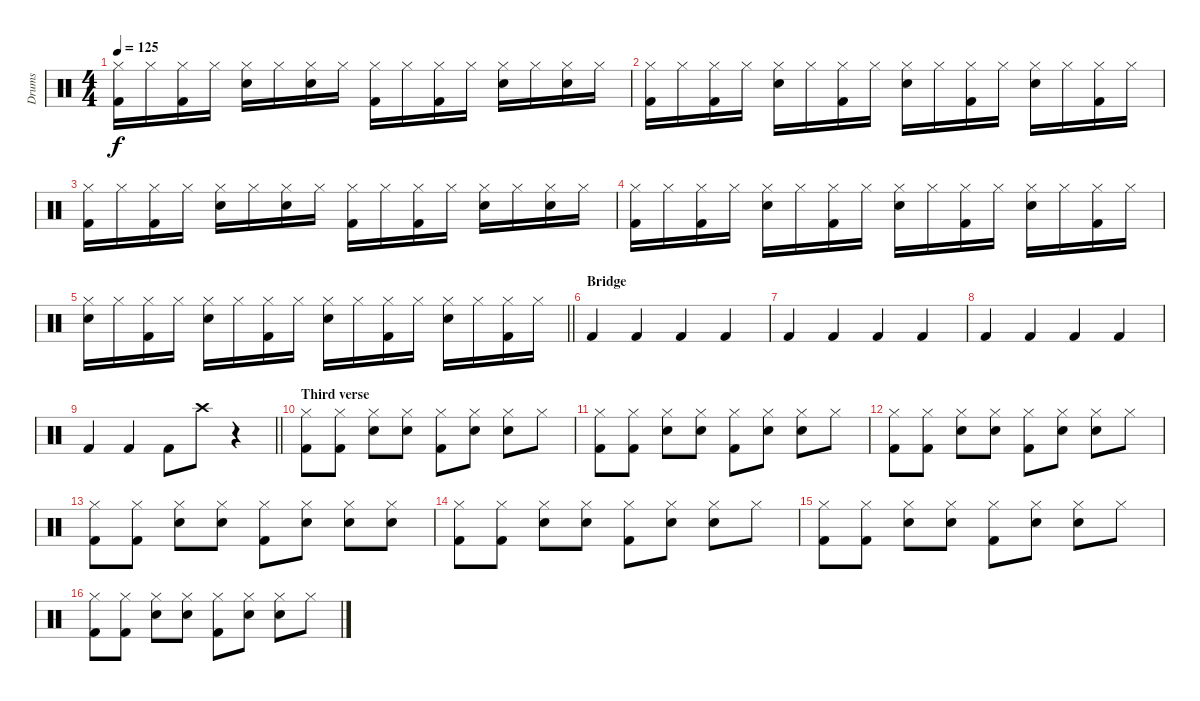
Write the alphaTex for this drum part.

\track ("Drums" "Drums") {instrument percussion}
\staff {score}
\articulation defaults
\ts (4 4)
\tempo 125
\clef neutral
\ks c
("Hi-Hat (closed)" "Kick (hit) 2").16{dy f} "Hi-Hat (closed)".16 ("Hi-Hat (closed)" "Kick (hit) 2").16 "Hi-Hat (closed)".16 ("Hi-Hat (closed)" "Electric Snare (hit)").16 "Hi-Hat (closed)".16 ("Hi-Hat (closed)" "Electric Snare (hit)").16 "Hi-Hat (closed)".16 ("Hi-Hat (closed)" "Kick (hit) 2").16 "Hi-Hat (closed)".16 ("Hi-Hat (closed)" "Kick (hit) 2").16 "Hi-Hat (closed)".16 ("Hi-Hat (closed)" "Electric Snare (hit)").16 "Hi-Hat (closed)".16 ("Hi-Hat (closed)" "Electric Snare (hit)").16 "Hi-Hat (closed)".16 |
("Hi-Hat (closed)" "Kick (hit) 2").16 "Hi-Hat (closed)".16 ("Hi-Hat (closed)" "Kick (hit) 2").16 "Hi-Hat (closed)".16 ("Hi-Hat (closed)" "Electric Snare (hit)").16 "Hi-Hat (closed)".16 ("Hi-Hat (closed)" "Kick (hit) 2").16 "Hi-Hat (closed)".16 ("Hi-Hat (closed)" "Electric Snare (hit)").16 "Hi-Hat (closed)".16 ("Hi-Hat (closed)" "Kick (hit) 2").16 "Hi-Hat (closed)".16 ("Hi-Hat (closed)" "Electric Snare (hit)").16 "Hi-Hat (closed)".16 ("Hi-Hat (closed)" "Kick (hit) 2").16 "Hi-Hat (closed)".16 |
("Hi-Hat (closed)" "Kick (hit) 2").16 "Hi-Hat (closed)".16 ("Hi-Hat (closed)" "Kick (hit) 2").16 "Hi-Hat (closed)".16 ("Hi-Hat (closed)" "Electric Snare (hit)").16 "Hi-Hat (closed)".16 ("Hi-Hat (closed)" "Electric Snare (hit)").16 "Hi-Hat (closed)".16 ("Hi-Hat (closed)" "Kick (hit) 2").16 "Hi-Hat (closed)".16 ("Hi-Hat (closed)" "Kick (hit) 2").16 "Hi-Hat (closed)".16 ("Hi-Hat (closed)" "Electric Snare (hit)").16 "Hi-Hat (closed)".16 ("Hi-Hat (closed)" "Electric Snare (hit)").16 "Hi-Hat (closed)".16 |
("Hi-Hat (closed)" "Kick (hit) 2").16 "Hi-Hat (closed)".16 ("Hi-Hat (closed)" "Kick (hit) 2").16 "Hi-Hat (closed)".16 ("Hi-Hat (closed)" "Electric Snare (hit)").16 "Hi-Hat (closed)".16 ("Hi-Hat (closed)" "Kick (hit) 2").16 "Hi-Hat (closed)".16 ("Hi-Hat (closed)" "Electric Snare (hit)").16 "Hi-Hat (closed)".16 ("Hi-Hat (closed)" "Kick (hit) 2").16 "Hi-Hat (closed)".16 ("Hi-Hat (closed)" "Electric Snare (hit)").16 "Hi-Hat (closed)".16 ("Hi-Hat (closed)" "Kick (hit) 2").16 "Hi-Hat (closed)".16 |
\barLineRight lightlight
("Hi-Hat (closed)" "Electric Snare (hit)").16 "Hi-Hat (closed)".16 ("Hi-Hat (closed)" "Kick (hit) 2").16 "Hi-Hat (closed)".16 ("Hi-Hat (closed)" "Electric Snare (hit)").16 "Hi-Hat (closed)".16 ("Hi-Hat (closed)" "Kick (hit) 2").16 "Hi-Hat (closed)".16 ("Hi-Hat (closed)" "Electric Snare (hit)").16 "Hi-Hat (closed)".16 ("Hi-Hat (closed)" "Kick (hit) 2").16 "Hi-Hat (closed)".16 ("Hi-Hat (closed)" "Electric Snare (hit)").16 "Hi-Hat (closed)".16 ("Hi-Hat (closed)" "Kick (hit) 2").16 "Hi-Hat (closed)".16 |
\section ("" "Bridge")
"Kick (hit) 2".4 "Kick (hit) 2".4 "Kick (hit) 2".4 "Kick (hit) 2".4 |
"Kick (hit) 2".4 "Kick (hit) 2".4 "Kick (hit) 2".4 "Kick (hit) 2".4 |
"Kick (hit) 2".4 "Kick (hit) 2".4 "Kick (hit) 2".4 "Kick (hit) 2".4 |
\barLineRight lightlight "Kick (hit) 2".4 "Kick (hit) 2".4 "Kick (hit) 2".8 "Crash high (hit)".8
r.4 |
\section ("" "Third verse")
("Hi-Hat (closed)" "Kick (hit) 2").8 ("Hi-Hat (closed)" "Kick (hit) 2").8 ("Hi-Hat (closed)" "Electric Snare (hit)").8 ("Hi-Hat (closed)" "Electric Snare (hit)").8 ("Hi-Hat (closed)" "Kick (hit) 2").8 ("Hi-Hat (closed)" "Electric Snare (hit)").8 ("Hi-Hat (closed)" "Electric Snare (hit)").8 "Hi-Hat (closed)".8 |
("Hi-Hat (closed)" "Kick (hit) 2").8 ("Hi-Hat (closed)" "Kick (hit) 2").8 ("Hi-Hat (closed)" "Electric Snare (hit)").8 ("Hi-Hat (closed)" "Electric Snare (hit)").8 ("Hi-Hat (closed)" "Kick (hit) 2").8 ("Hi-Hat (closed)" "Electric Snare (hit)").8 ("Hi-Hat (closed)" "Electric Snare (hit)").8 "Hi-Hat (closed)".8 |
("Hi-Hat (closed)" "Kick (hit) 2").8 ("Hi-Hat (closed)" "Kick (hit) 2").8 ("Hi-Hat (closed)" "Electric Snare (hit)").8 ("Hi-Hat (closed)" "Electric Snare (hit)").8 ("Hi-Hat (closed)" "Kick (hit) 2").8 ("Hi-Hat (closed)" "Electric Snare (hit)").8 ("Hi-Hat (closed)" "Electric Snare (hit)").8 "Hi-Hat (closed)".8 |
("Hi-Hat (closed)" "Kick (hit) 2").8 ("Hi-Hat (closed)" "Kick (hit) 2").8 ("Hi-Hat (closed)" "Electric Snare (hit)").8 ("Hi-Hat (closed)" "Electric Snare (hit)").8 ("Hi-Hat (closed)" "Kick (hit) 2").8 ("Hi-Hat (closed)" "Electric Snare (hit)").8 ("Hi-Hat (closed)" "Electric Snare (hit)").8 ("Hi-Hat (closed)" "Electric Snare (hit)").8 |
("Hi-Hat (closed)" "Kick (hit) 2").8 ("Hi-Hat (closed)" "Kick (hit) 2").8 ("Hi-Hat (closed)" "Electric Snare (hit)").8 ("Hi-Hat (closed)" "Electric Snare (hit)").8 ("Hi-Hat (closed)" "Kick (hit) 2").8 ("Hi-Hat (closed)" "Electric Snare (hit)").8 ("Hi-Hat (closed)" "Electric Snare (hit)").8 "Hi-Hat (closed)".8 |
("Hi-Hat (closed)" "Kick (hit) 2").8 ("Hi-Hat (closed)" "Kick (hit) 2").8 ("Hi-Hat (closed)" "Electric Snare (hit)").8 ("Hi-Hat (closed)" "Electric Snare (hit)").8 ("Hi-Hat (closed)" "Kick (hit) 2").8 ("Hi-Hat (closed)" "Electric Snare (hit)").8 ("Hi-Hat (closed)" "Electric Snare (hit)").8 "Hi-Hat (closed)".8 |
("Hi-Hat (closed)" "Kick (hit) 2").8 ("Hi-Hat (closed)" "Kick (hit) 2").8 ("Hi-Hat (closed)" "Electric Snare (hit)").8 ("Hi-Hat (closed)" "Electric Snare (hit)").8 ("Hi-Hat (closed)" "Kick (hit) 2").8 ("Hi-Hat (closed)" "Electric Snare (hit)").8 ("Hi-Hat (closed)" "Electric Snare (hit)").8 "Hi-Hat (closed)".8
